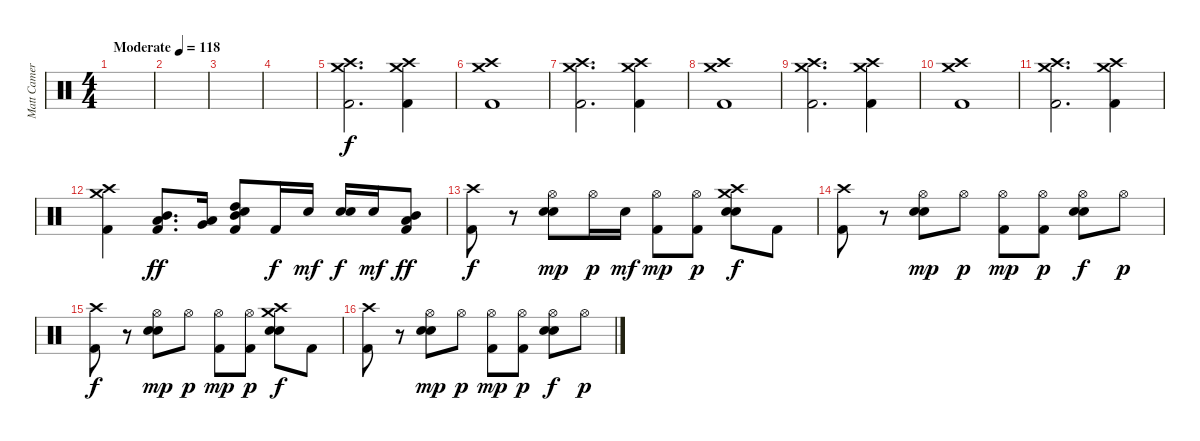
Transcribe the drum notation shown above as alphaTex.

\track ("Matt Cameron" "Matt Camer") {instrument percussion}
\staff
\articulation defaults
\ts (4 4)
\tempo (118 "Moderate")
\clef neutral
\ks c
|
|
|
|
("Crash high (hit)" "Crash medium (hit)" "Kick (hit) 2").2{d} ("Crash high (hit)" "Crash medium (hit)" "Kick (hit) 2").4 |
("Crash high (hit)" "Crash medium (hit)" "Kick (hit) 2").1 |
("Crash high (hit)" "Crash medium (hit)" "Kick (hit) 2").2{d} ("Crash high (hit)" "Crash medium (hit)" "Kick (hit) 2").4 |
("Crash high (hit)" "Crash medium (hit)" "Kick (hit) 2").1 |
("Crash high (hit)" "Crash medium (hit)" "Kick (hit) 2").2{d} ("Crash high (hit)" "Crash medium (hit)" "Kick (hit) 2").4 |
("Crash high (hit)" "Crash medium (hit)" "Kick (hit) 2").1 |
("Crash high (hit)" "Crash medium (hit)" "Kick (hit) 2").2{d} ("Crash high (hit)" "Crash medium (hit)" "Kick (hit) 2").4 |
("Crash high (hit)" "Crash medium (hit)" "Kick (hit) 2").4 ("Mid Tom (hit)" "Low Tom (hit)" "Kick (hit) 2").8{d dy ff} ("Low Tom (hit)" "Very Low Tom (hit)").16 ("Electric Snare (hit)" "Mid Tom (hit)" "High Tom (hit)" "Kick (hit) 2").8 "Kick (hit) 2".16{dy f} "Electric Snare (hit)".16{dy mf} ("Snare (hit) 2" "Electric Snare (hit)").16{dy f} "Electric Snare (hit)".16{dy mf} ("Mid Tom (hit)" "Low Tom (hit)" "Kick (hit) 2").8{dy ff} |
("Crash high (hit)" "Kick (hit) 2").8{dy f} r.8 ("Hi-Hat (open)" "Electric Snare (hit)" "Snare (hit) 2").8{dy mp} "Hi-Hat (open)".16{dy p} "Electric Snare (hit)".16{dy mf} ("Hi-Hat (open)" "Kick (hit) 2").8{dy mp} ("Hi-Hat (open)" "Kick (hit) 2").8{dy p} ("Crash medium (hit)" "Crash high (hit)" "Electric Snare (hit)" "Snare (hit) 2").8{dy f} "Kick (hit) 2".8 |
("Crash high (hit)" "Kick (hit) 2").8 r.8 ("Hi-Hat (open)" "Electric Snare (hit)" "Snare (hit) 2").8{dy mp} "Hi-Hat (open)".8{dy p} ("Hi-Hat (open)" "Kick (hit) 2").8{dy mp} ("Hi-Hat (open)" "Kick (hit) 2").8{dy p} ("Hi-Hat (open)" "Electric Snare (hit)" "Snare (hit) 2").8{dy f} "Hi-Hat (open)".8{dy p} |
("Crash high (hit)" "Kick (hit) 2").8{dy f} r.8 ("Hi-Hat (open)" "Electric Snare (hit)" "Snare (hit) 2").8{dy mp} "Hi-Hat (open)".8{dy p} ("Hi-Hat (open)" "Kick (hit) 2").8{dy mp} ("Hi-Hat (open)" "Kick (hit) 2").8{dy p} ("Crash medium (hit)" "Crash high (hit)" "Electric Snare (hit)" "Snare (hit) 2").8{dy f} "Kick (hit) 2".8 |
("Crash high (hit)" "Kick (hit) 2").8 r.8 ("Hi-Hat (open)" "Electric Snare (hit)" "Snare (hit) 2").8{dy mp} "Hi-Hat (open)".8{dy p} ("Hi-Hat (open)" "Kick (hit) 2").8{dy mp} ("Hi-Hat (open)" "Kick (hit) 2").8{dy p} ("Hi-Hat (open)" "Electric Snare (hit)" "Snare (hit) 2").8{dy f} "Hi-Hat (open)".8{dy p}
